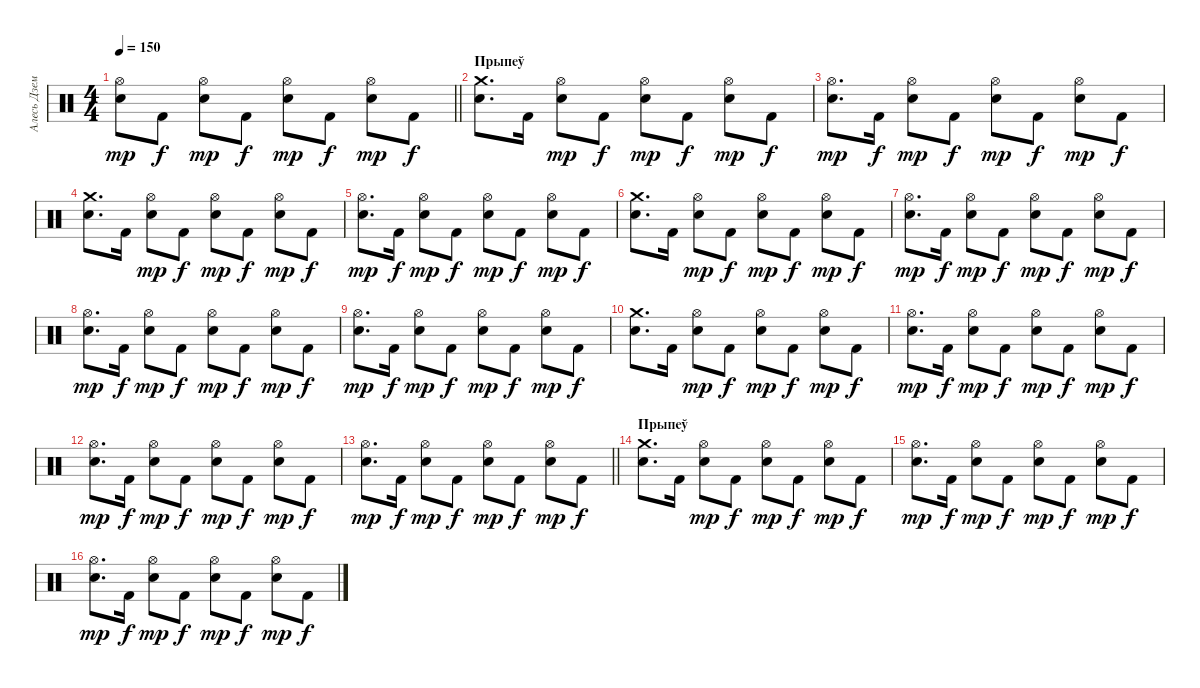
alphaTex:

\track ("Алесь Дземідовіч" "Алесь Дзем") {instrument percussion}
\staff {score}
\articulation defaults
\ts (4 4)
\tempo 150
\clef neutral
\barLineRight lightlight
\ks c
("Hi-Hat (open)" "Electric Snare (hit)").8{dy mp} "Kick (hit) 2".8{dy f} ("Hi-Hat (open)" "Electric Snare (hit)").8{dy mp} "Kick (hit) 2".8{dy f} ("Hi-Hat (open)" "Electric Snare (hit)").8{dy mp} "Kick (hit) 2".8{dy f} ("Hi-Hat (open)" "Electric Snare (hit)").8{dy mp} "Kick (hit) 2".8{dy f} |
\section ("" "Прыпеў")
("Crash medium (hit)" "Electric Snare (hit)").8{d} "Kick (hit) 2".16 ("Hi-Hat (open)" "Electric Snare (hit)").8{dy mp} "Kick (hit) 2".8{dy f} ("Hi-Hat (open)" "Electric Snare (hit)").8{dy mp} "Kick (hit) 2".8{dy f} ("Hi-Hat (open)" "Electric Snare (hit)").8{dy mp} "Kick (hit) 2".8{dy f} |
("Hi-Hat (open)" "Electric Snare (hit)").8{d dy mp} "Kick (hit) 2".16{dy f} ("Hi-Hat (open)" "Electric Snare (hit)").8{dy mp} "Kick (hit) 2".8{dy f} ("Hi-Hat (open)" "Electric Snare (hit)").8{dy mp} "Kick (hit) 2".8{dy f} ("Hi-Hat (open)" "Electric Snare (hit)").8{dy mp} "Kick (hit) 2".8{dy f} |
("Crash medium (hit)" "Electric Snare (hit)").8{d} "Kick (hit) 2".16 ("Hi-Hat (open)" "Electric Snare (hit)").8{dy mp} "Kick (hit) 2".8{dy f} ("Hi-Hat (open)" "Electric Snare (hit)").8{dy mp} "Kick (hit) 2".8{dy f} ("Hi-Hat (open)" "Electric Snare (hit)").8{dy mp} "Kick (hit) 2".8{dy f} |
("Hi-Hat (open)" "Electric Snare (hit)").8{d dy mp} "Kick (hit) 2".16{dy f} ("Hi-Hat (open)" "Electric Snare (hit)").8{dy mp} "Kick (hit) 2".8{dy f} ("Hi-Hat (open)" "Electric Snare (hit)").8{dy mp} "Kick (hit) 2".8{dy f} ("Hi-Hat (open)" "Electric Snare (hit)").8{dy mp} "Kick (hit) 2".8{dy f} |
("Crash medium (hit)" "Electric Snare (hit)").8{d} "Kick (hit) 2".16 ("Hi-Hat (open)" "Electric Snare (hit)").8{dy mp} "Kick (hit) 2".8{dy f} ("Hi-Hat (open)" "Electric Snare (hit)").8{dy mp} "Kick (hit) 2".8{dy f} ("Hi-Hat (open)" "Electric Snare (hit)").8{dy mp} "Kick (hit) 2".8{dy f} |
("Hi-Hat (open)" "Electric Snare (hit)").8{d dy mp} "Kick (hit) 2".16{dy f} ("Hi-Hat (open)" "Electric Snare (hit)").8{dy mp} "Kick (hit) 2".8{dy f} ("Hi-Hat (open)" "Electric Snare (hit)").8{dy mp} "Kick (hit) 2".8{dy f} ("Hi-Hat (open)" "Electric Snare (hit)").8{dy mp} "Kick (hit) 2".8{dy f} |
("Hi-Hat (open)" "Electric Snare (hit)").8{d dy mp} "Kick (hit) 2".16{dy f} ("Hi-Hat (open)" "Electric Snare (hit)").8{dy mp} "Kick (hit) 2".8{dy f} ("Hi-Hat (open)" "Electric Snare (hit)").8{dy mp} "Kick (hit) 2".8{dy f} ("Hi-Hat (open)" "Electric Snare (hit)").8{dy mp} "Kick (hit) 2".8{dy f} |
("Hi-Hat (open)" "Electric Snare (hit)").8{d dy mp} "Kick (hit) 2".16{dy f} ("Hi-Hat (open)" "Electric Snare (hit)").8{dy mp} "Kick (hit) 2".8{dy f} ("Hi-Hat (open)" "Electric Snare (hit)").8{dy mp} "Kick (hit) 2".8{dy f} ("Hi-Hat (open)" "Electric Snare (hit)").8{dy mp} "Kick (hit) 2".8{dy f} |
("Crash medium (hit)" "Electric Snare (hit)").8{d} "Kick (hit) 2".16 ("Hi-Hat (open)" "Electric Snare (hit)").8{dy mp} "Kick (hit) 2".8{dy f} ("Hi-Hat (open)" "Electric Snare (hit)").8{dy mp} "Kick (hit) 2".8{dy f} ("Hi-Hat (open)" "Electric Snare (hit)").8{dy mp} "Kick (hit) 2".8{dy f} |
("Hi-Hat (open)" "Electric Snare (hit)").8{d dy mp} "Kick (hit) 2".16{dy f} ("Hi-Hat (open)" "Electric Snare (hit)").8{dy mp} "Kick (hit) 2".8{dy f} ("Hi-Hat (open)" "Electric Snare (hit)").8{dy mp} "Kick (hit) 2".8{dy f} ("Hi-Hat (open)" "Electric Snare (hit)").8{dy mp} "Kick (hit) 2".8{dy f} |
("Hi-Hat (open)" "Electric Snare (hit)").8{d dy mp} "Kick (hit) 2".16{dy f} ("Hi-Hat (open)" "Electric Snare (hit)").8{dy mp} "Kick (hit) 2".8{dy f} ("Hi-Hat (open)" "Electric Snare (hit)").8{dy mp} "Kick (hit) 2".8{dy f} ("Hi-Hat (open)" "Electric Snare (hit)").8{dy mp} "Kick (hit) 2".8{dy f} |
\barLineRight lightlight
("Hi-Hat (open)" "Electric Snare (hit)").8{d dy mp} "Kick (hit) 2".16{dy f} ("Hi-Hat (open)" "Electric Snare (hit)").8{dy mp} "Kick (hit) 2".8{dy f} ("Hi-Hat (open)" "Electric Snare (hit)").8{dy mp} "Kick (hit) 2".8{dy f} ("Hi-Hat (open)" "Electric Snare (hit)").8{dy mp} "Kick (hit) 2".8{dy f} |
\section ("" "Прыпеў")
("Crash medium (hit)" "Electric Snare (hit)").8{d} "Kick (hit) 2".16 ("Hi-Hat (open)" "Electric Snare (hit)").8{dy mp} "Kick (hit) 2".8{dy f} ("Hi-Hat (open)" "Electric Snare (hit)").8{dy mp} "Kick (hit) 2".8{dy f} ("Hi-Hat (open)" "Electric Snare (hit)").8{dy mp} "Kick (hit) 2".8{dy f} |
("Hi-Hat (open)" "Electric Snare (hit)").8{d dy mp} "Kick (hit) 2".16{dy f} ("Hi-Hat (open)" "Electric Snare (hit)").8{dy mp} "Kick (hit) 2".8{dy f} ("Hi-Hat (open)" "Electric Snare (hit)").8{dy mp} "Kick (hit) 2".8{dy f} ("Hi-Hat (open)" "Electric Snare (hit)").8{dy mp} "Kick (hit) 2".8{dy f} |
("Hi-Hat (open)" "Electric Snare (hit)").8{d dy mp} "Kick (hit) 2".16{dy f} ("Hi-Hat (open)" "Electric Snare (hit)").8{dy mp} "Kick (hit) 2".8{dy f} ("Hi-Hat (open)" "Electric Snare (hit)").8{dy mp} "Kick (hit) 2".8{dy f} ("Hi-Hat (open)" "Electric Snare (hit)").8{dy mp} "Kick (hit) 2".8{dy f}
